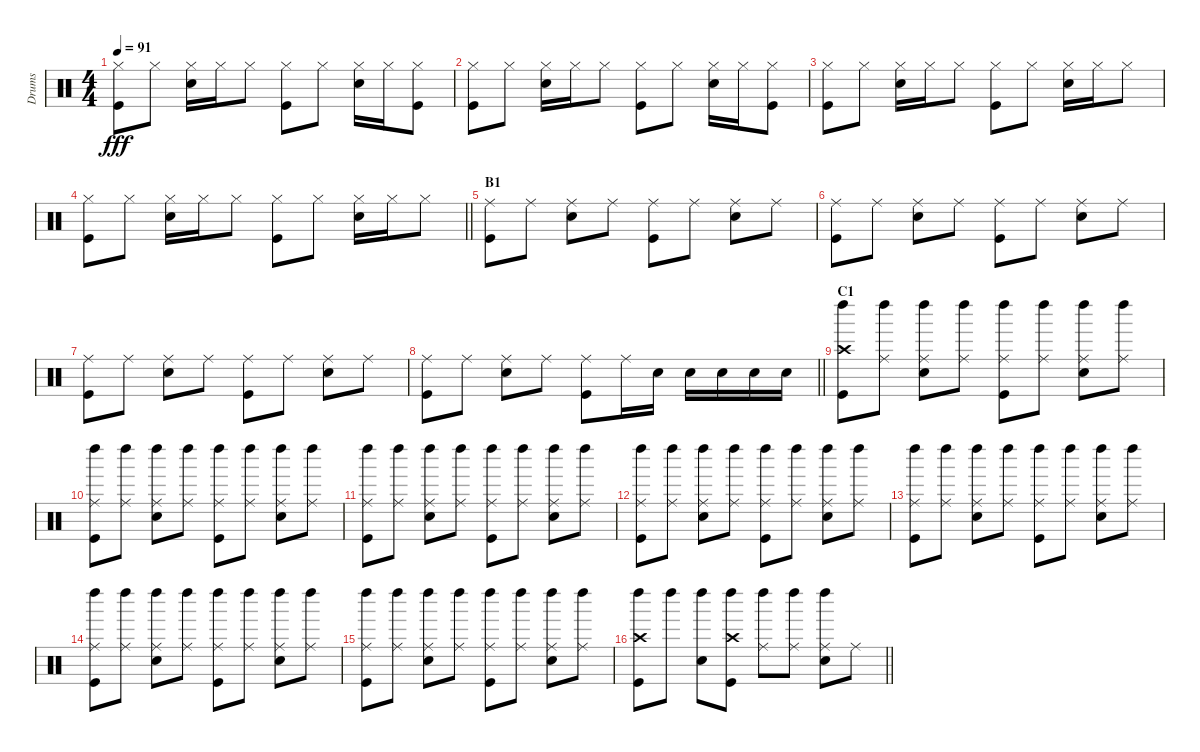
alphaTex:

\track ("Drums" "Drums") {instrument percussion}
\staff {score}
\articulation defaults
\ts (4 4)
\tempo 91
\clef neutral
\ks c
("Hi-Hat (closed)" "Kick (hit)").8{dy fff} "Hi-Hat (closed)".8 ("Hi-Hat (closed)" "Snare (hit) 2").16 "Hi-Hat (closed)".16 "Hi-Hat (closed)".8 ("Hi-Hat (closed)" "Kick (hit)").8 "Hi-Hat (closed)".8 ("Hi-Hat (closed)" "Snare (hit) 2").16 "Hi-Hat (closed)".16 ("Hi-Hat (closed)" "Kick (hit)").8 |
("Hi-Hat (closed)" "Kick (hit)").8 "Hi-Hat (closed)".8 ("Hi-Hat (closed)" "Snare (hit) 2").16 "Hi-Hat (closed)".16 "Hi-Hat (closed)".8 ("Hi-Hat (closed)" "Kick (hit)").8 "Hi-Hat (closed)".8 ("Hi-Hat (closed)" "Snare (hit) 2").16 "Hi-Hat (closed)".16 ("Hi-Hat (closed)" "Kick (hit)").8 |
("Hi-Hat (closed)" "Kick (hit)").8 "Hi-Hat (closed)".8 ("Hi-Hat (closed)" "Snare (hit) 2").16 "Hi-Hat (closed)".16 "Hi-Hat (closed)".8 ("Hi-Hat (closed)" "Kick (hit)").8 "Hi-Hat (closed)".8 ("Hi-Hat (closed)" "Snare (hit) 2").16 "Hi-Hat (closed)".16 "Hi-Hat (closed)".8 |
\barLineRight lightlight
("Hi-Hat (closed)" "Kick (hit)").8 "Hi-Hat (closed)".8 ("Hi-Hat (closed)" "Snare (hit) 2").16 "Hi-Hat (closed)".16 "Hi-Hat (closed)".8 ("Hi-Hat (closed)" "Kick (hit)").8 "Hi-Hat (closed)".8 ("Hi-Hat (closed)" "Snare (hit) 2").16 "Hi-Hat (closed)".16 "Hi-Hat (closed)".8 |
\section ("" "B1")
("Ride (middle)" "Kick (hit)").8 "Ride (middle)".8 ("Ride (middle)" "Snare (hit) 2").8 "Ride (middle)".8 ("Ride (middle)" "Kick (hit)").8 "Ride (middle)".8 ("Ride (middle)" "Snare (hit) 2").8 "Ride (middle)".8 |
("Ride (middle)" "Kick (hit)").8 "Ride (middle)".8 ("Ride (middle)" "Snare (hit) 2").8 "Ride (middle)".8 ("Ride (middle)" "Kick (hit)").8 "Ride (middle)".8 ("Ride (middle)" "Snare (hit) 2").8 "Ride (middle)".8 |
("Ride (middle)" "Kick (hit)").8 "Ride (middle)".8 ("Ride (middle)" "Snare (hit) 2").8 "Ride (middle)".8 ("Ride (middle)" "Kick (hit)").8 "Ride (middle)".8 ("Ride (middle)" "Snare (hit) 2").8 "Ride (middle)".8 |
\barLineRight lightlight
("Ride (middle)" "Kick (hit)").8 "Ride (middle)".8 ("Ride (middle)" "Snare (hit) 2").8 "Ride (middle)".8 ("Ride (middle)" "Kick (hit)").8 "Ride (middle)".16 "Snare (hit) 2".16 "Snare (hit) 2".16 "Snare (hit) 2".16 "Snare (hit) 2".16 "Snare (hit) 2".16 |
\section ("" "C1")
("Left Maraca (hit)" "Crash high (hit)" "Kick (hit)").8 ("Left Maraca (hit)" "Ride (middle)").8 ("Left Maraca (hit)" "Ride (middle)" "Snare (hit) 2").8 ("Left Maraca (hit)" "Ride (middle)").8 ("Left Maraca (hit)" "Ride (middle)" "Kick (hit)").8 ("Left Maraca (hit)" "Ride (middle)").8 ("Left Maraca (hit)" "Ride (middle)" "Snare (hit) 2").8 ("Left Maraca (hit)" "Ride (middle)").8 |
("Left Maraca (hit)" "Ride (middle)" "Kick (hit)").8 ("Left Maraca (hit)" "Ride (middle)").8 ("Left Maraca (hit)" "Ride (middle)" "Snare (hit) 2").8 ("Left Maraca (hit)" "Ride (middle)").8 ("Left Maraca (hit)" "Ride (middle)" "Kick (hit)").8 ("Left Maraca (hit)" "Ride (middle)").8 ("Left Maraca (hit)" "Ride (middle)" "Snare (hit) 2").8 ("Left Maraca (hit)" "Ride (middle)").8 |
("Left Maraca (hit)" "Ride (middle)" "Kick (hit)").8 ("Left Maraca (hit)" "Ride (middle)").8 ("Left Maraca (hit)" "Ride (middle)" "Snare (hit) 2").8 ("Left Maraca (hit)" "Ride (middle)").8 ("Left Maraca (hit)" "Ride (middle)" "Kick (hit)").8 ("Left Maraca (hit)" "Ride (middle)").8 ("Left Maraca (hit)" "Ride (middle)" "Snare (hit) 2").8 ("Left Maraca (hit)" "Ride (middle)").8 |
("Left Maraca (hit)" "Ride (middle)" "Kick (hit)").8 ("Left Maraca (hit)" "Ride (middle)").8 ("Left Maraca (hit)" "Ride (middle)" "Snare (hit) 2").8 ("Left Maraca (hit)" "Ride (middle)").8 ("Left Maraca (hit)" "Ride (middle)" "Kick (hit)").8 ("Left Maraca (hit)" "Ride (middle)").8 ("Left Maraca (hit)" "Ride (middle)" "Snare (hit) 2").8 ("Left Maraca (hit)" "Ride (middle)").8 |
("Left Maraca (hit)" "Ride (middle)" "Kick (hit)").8 ("Left Maraca (hit)" "Ride (middle)").8 ("Left Maraca (hit)" "Ride (middle)" "Snare (hit) 2").8 ("Left Maraca (hit)" "Ride (middle)").8 ("Left Maraca (hit)" "Ride (middle)" "Kick (hit)").8 ("Left Maraca (hit)" "Ride (middle)").8 ("Left Maraca (hit)" "Ride (middle)" "Snare (hit) 2").8 ("Left Maraca (hit)" "Ride (middle)").8 |
("Left Maraca (hit)" "Ride (middle)" "Kick (hit)").8 ("Left Maraca (hit)" "Ride (middle)").8 ("Left Maraca (hit)" "Ride (middle)" "Snare (hit) 2").8 ("Left Maraca (hit)" "Ride (middle)").8 ("Left Maraca (hit)" "Ride (middle)" "Kick (hit)").8 ("Left Maraca (hit)" "Ride (middle)").8 ("Left Maraca (hit)" "Ride (middle)" "Snare (hit) 2").8 ("Left Maraca (hit)" "Ride (middle)").8 |
("Left Maraca (hit)" "Ride (middle)" "Kick (hit)").8 ("Left Maraca (hit)" "Ride (middle)").8 ("Left Maraca (hit)" "Ride (middle)" "Snare (hit) 2").8 ("Left Maraca (hit)" "Ride (middle)").8 ("Left Maraca (hit)" "Ride (middle)" "Kick (hit)").8 ("Left Maraca (hit)" "Ride (middle)").8 ("Left Maraca (hit)" "Ride (middle)" "Snare (hit) 2").8 ("Left Maraca (hit)" "Ride (middle)").8 |
\barLineRight lightlight
("Left Maraca (hit)" "Crash high (hit)" "Kick (hit)").8 "Left Maraca (hit)".8 ("Left Maraca (hit)" "Snare (hit) 2").8 ("Left Maraca (hit)" "Crash high (hit)" "Kick (hit)").8 ("Left Maraca (hit)" "Ride (middle)").8 ("Left Maraca (hit)" "Ride (middle)").8 ("Left Maraca (hit)" "Ride (middle)" "Snare (hit) 2").8 "Ride (middle)".8
